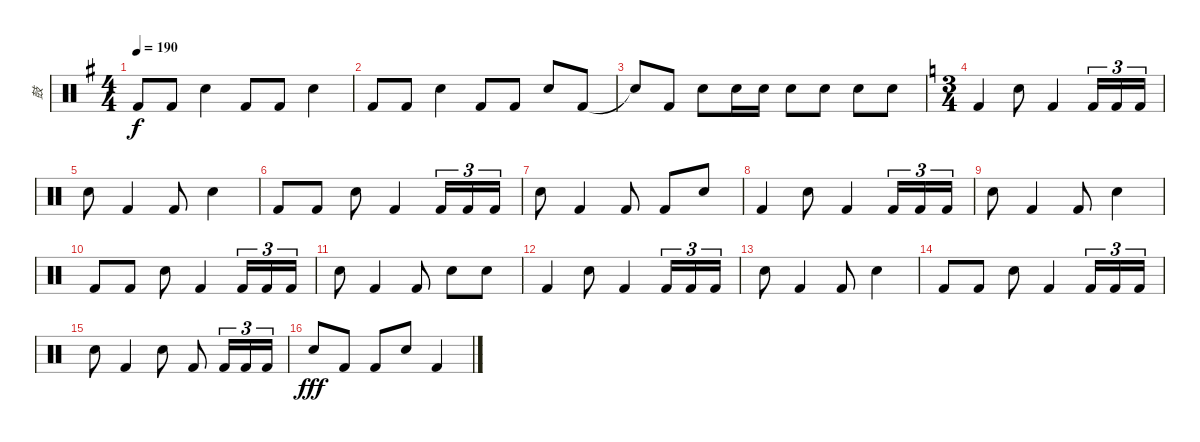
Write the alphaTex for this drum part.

\track ("鼓" "鼓") {instrument percussion}
\staff {score}
\articulation defaults
\ts (4 4)
\tempo 190
\clef neutral
\ks g "Kick (hit) 2"{t}.8{dy f} "Kick (hit) 2".8 "Electric Snare (hit)".4 "Kick (hit) 2".8 "Kick (hit) 2".8 "Electric Snare (hit)".4
|
"Kick (hit) 2".8 "Kick (hit) 2".8 "Electric Snare (hit)".4 "Kick (hit) 2".8 "Kick (hit) 2".8 "Electric Snare (hit)".8 "Kick (hit) 2".8 |
"Snare (hit)"{t}.8 "Kick (hit) 2".8 "Electric Snare (hit)".8 "Electric Snare (hit)".16 "Electric Snare (hit)".16 "Electric Snare (hit)".8 "Electric Snare (hit)".8 "Electric Snare (hit)".8 "Electric Snare (hit)".8 |
\ts (3 4)
\ks c "Kick (hit) 2".4 "Electric Snare (hit)".8 "Kick (hit) 2".4 "Kick (hit) 2".16{tu (3 2)} "Kick (hit) 2".16{tu (3 2)} "Kick (hit) 2".16{tu (3 2)}
|
"Electric Snare (hit)".8 "Kick (hit) 2".4 "Kick (hit) 2".8 "Electric Snare (hit)".4 |
"Kick (hit) 2".8 "Kick (hit) 2".8 "Electric Snare (hit)".8 "Kick (hit) 2".4 "Kick (hit) 2".16{tu (3 2)} "Kick (hit) 2".16{tu (3 2)} "Kick (hit) 2".16{tu (3 2)} |
"Electric Snare (hit)".8 "Kick (hit) 2".4 "Kick (hit) 2".8 "Kick (hit) 2".8 "Electric Snare (hit)".8 |
"Kick (hit) 2".4 "Electric Snare (hit)".8 "Kick (hit) 2".4 "Kick (hit) 2".16{tu (3 2)} "Kick (hit) 2".16{tu (3 2)} "Kick (hit) 2".16{tu (3 2)} |
"Electric Snare (hit)".8 "Kick (hit) 2".4 "Kick (hit) 2".8 "Electric Snare (hit)".4 |
"Kick (hit) 2".8 "Kick (hit) 2".8 "Electric Snare (hit)".8 "Kick (hit) 2".4 "Kick (hit) 2".16{tu (3 2)} "Kick (hit) 2".16{tu (3 2)} "Kick (hit) 2".16{tu (3 2)} |
"Electric Snare (hit)".8 "Kick (hit) 2".4 "Kick (hit) 2".8 "Electric Snare (hit)".8 "Electric Snare (hit)".8 |
"Kick (hit) 2".4 "Electric Snare (hit)".8 "Kick (hit) 2".4 "Kick (hit) 2".16{tu (3 2)} "Kick (hit) 2".16{tu (3 2)} "Kick (hit) 2".16{tu (3 2)} |
"Electric Snare (hit)".8 "Kick (hit) 2".4 "Kick (hit) 2".8 "Electric Snare (hit)".4 |
"Kick (hit) 2".8 "Kick (hit) 2".8 "Electric Snare (hit)".8 "Kick (hit) 2".4 "Kick (hit) 2".16{tu (3 2)} "Kick (hit) 2".16{tu (3 2)} "Kick (hit) 2".16{tu (3 2)} |
"Electric Snare (hit)".8 "Kick (hit) 2".4 "Electric Snare (hit)".8 "Kick (hit) 2".8 "Kick (hit) 2".16{tu (3 2)} "Kick (hit) 2".16{tu (3 2)} "Kick (hit) 2".16{tu (3 2)} |
"Electric Snare (hit)".8{dy fff} "Kick (hit) 2".8 "Kick (hit) 2".8 "Electric Snare (hit)".8 "Kick (hit) 2".4
